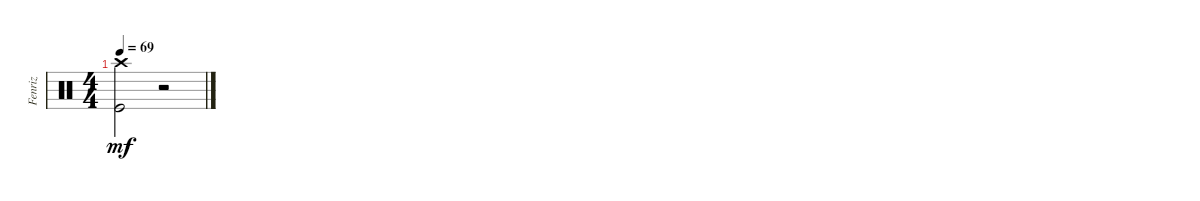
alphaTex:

\track ("Fenriz" "Fenriz") {instrument percussion}
\staff {score}
\articulation defaults
\ts (4 4)
\tempo 69
\clef neutral
\ks c
("Kick (hit)" "Crash high (hit)").2{dy mf} r.2
